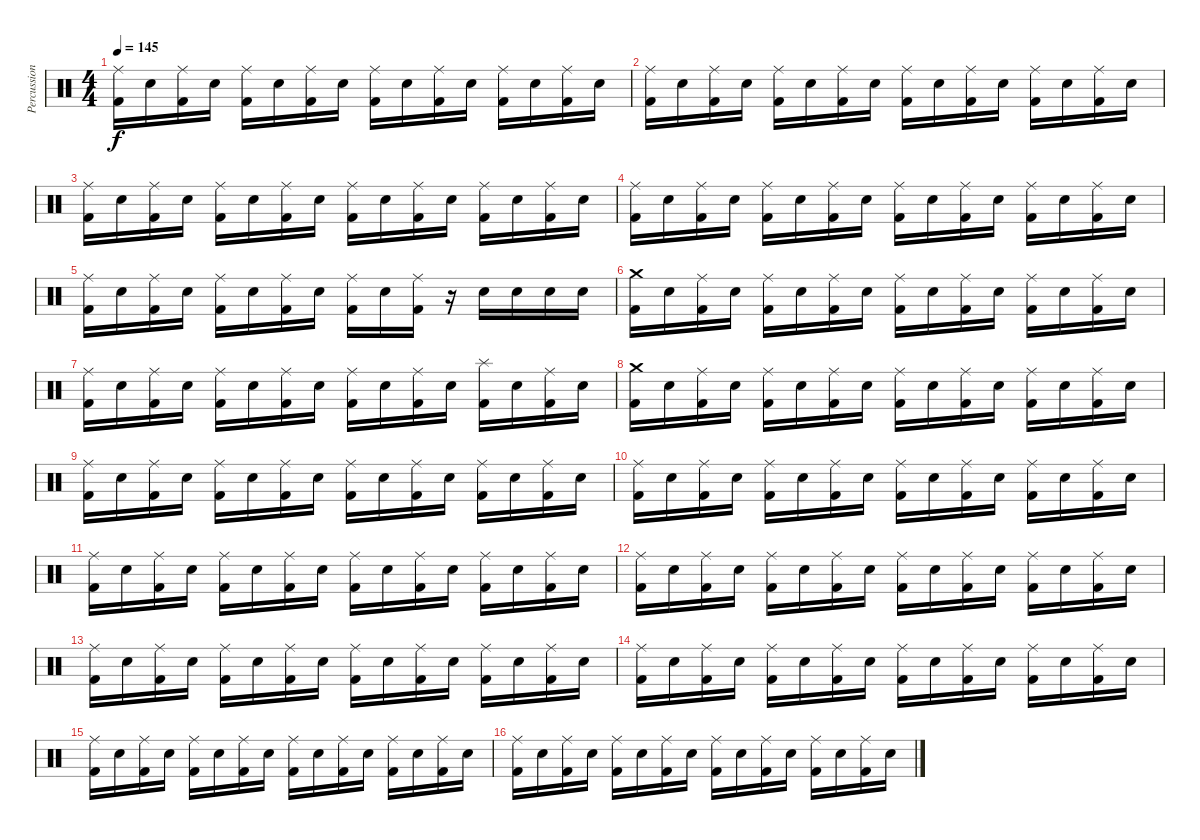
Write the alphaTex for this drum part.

\track ("Percussions" "Percussion") {instrument percussion}
\staff {score}
\articulation defaults
\ts (4 4)
\tempo 145
\clef neutral
\ks c
("Ride (middle)" "Kick (hit) 2").16{dy f} "Snare (hit) 2".16 ("Ride (middle)" "Kick (hit) 2").16 "Snare (hit) 2".16 ("Ride (middle)" "Kick (hit) 2").16 "Snare (hit) 2".16 ("Ride (middle)" "Kick (hit) 2").16 "Snare (hit) 2".16 ("Ride (middle)" "Kick (hit) 2").16 "Snare (hit) 2".16 ("Ride (middle)" "Kick (hit) 2").16 "Snare (hit) 2".16 ("Ride (middle)" "Kick (hit) 2").16 "Snare (hit) 2".16 ("Ride (middle)" "Kick (hit) 2").16 "Snare (hit) 2".16 |
("Ride (middle)" "Kick (hit) 2").16 "Snare (hit) 2".16 ("Ride (middle)" "Kick (hit) 2").16 "Snare (hit) 2".16 ("Ride (middle)" "Kick (hit) 2").16 "Snare (hit) 2".16 ("Ride (middle)" "Kick (hit) 2").16 "Snare (hit) 2".16 ("Ride (middle)" "Kick (hit) 2").16 "Snare (hit) 2".16 ("Ride (middle)" "Kick (hit) 2").16 "Snare (hit) 2".16 ("Ride (middle)" "Kick (hit) 2").16 "Snare (hit) 2".16 ("Ride (middle)" "Kick (hit) 2").16 "Snare (hit) 2".16 |
("Ride (middle)" "Kick (hit) 2").16 "Snare (hit) 2".16 ("Ride (middle)" "Kick (hit) 2").16 "Snare (hit) 2".16 ("Ride (middle)" "Kick (hit) 2").16 "Snare (hit) 2".16 ("Ride (middle)" "Kick (hit) 2").16 "Snare (hit) 2".16 ("Ride (middle)" "Kick (hit) 2").16 "Snare (hit) 2".16 ("Ride (middle)" "Kick (hit) 2").16 "Snare (hit) 2".16 ("Ride (middle)" "Kick (hit) 2").16 "Snare (hit) 2".16 ("Ride (middle)" "Kick (hit) 2").16 "Snare (hit) 2".16 |
("Ride (middle)" "Kick (hit) 2").16 "Snare (hit) 2".16 ("Ride (middle)" "Kick (hit) 2").16 "Snare (hit) 2".16 ("Ride (middle)" "Kick (hit) 2").16 "Snare (hit) 2".16 ("Ride (middle)" "Kick (hit) 2").16 "Snare (hit) 2".16 ("Ride (middle)" "Kick (hit) 2").16 "Snare (hit) 2".16 ("Ride (middle)" "Kick (hit) 2").16 "Snare (hit) 2".16 ("Ride (middle)" "Kick (hit) 2").16 "Snare (hit) 2".16 ("Ride (middle)" "Kick (hit) 2").16 "Snare (hit) 2".16 |
("Ride (middle)" "Kick (hit) 2").16 "Snare (hit) 2".16 ("Ride (middle)" "Kick (hit) 2").16 "Snare (hit) 2".16 ("Ride (middle)" "Kick (hit) 2").16 "Snare (hit) 2".16 ("Ride (middle)" "Kick (hit) 2").16 "Snare (hit) 2".16 ("Ride (middle)" "Kick (hit) 2").16 "Snare (hit) 2".16 ("Ride (middle)" "Kick (hit) 2").16 r.16 "Snare (hit) 2".16 "Snare (hit) 2".16 "Snare (hit) 2".16 "Snare (hit) 2".16 |
("Crash medium (hit)" "Kick (hit) 2").16 "Snare (hit) 2".16 ("Ride (middle)" "Kick (hit) 2").16 "Snare (hit) 2".16 ("Ride (middle)" "Kick (hit) 2").16 "Snare (hit) 2".16 ("Ride (middle)" "Kick (hit) 2").16 "Snare (hit) 2".16 ("Ride (middle)" "Kick (hit) 2").16 "Snare (hit) 2".16 ("Ride (middle)" "Kick (hit) 2").16 "Snare (hit) 2".16 ("Ride (middle)" "Kick (hit) 2").16 "Snare (hit) 2".16 ("Ride (middle)" "Kick (hit) 2").16 "Snare (hit) 2".16 |
("Ride (middle)" "Kick (hit) 2").16 "Snare (hit) 2".16 ("Ride (middle)" "Kick (hit) 2").16 "Snare (hit) 2".16 ("Ride (middle)" "Kick (hit) 2").16 "Snare (hit) 2".16 ("Ride (middle)" "Kick (hit) 2").16 "Snare (hit) 2".16 ("Ride (middle)" "Kick (hit) 2").16 "Snare (hit) 2".16 ("Ride (middle)" "Kick (hit) 2").16 "Snare (hit) 2".16 ("Splash (hit)" "Kick (hit) 2").16 "Snare (hit) 2".16 ("Ride (middle)" "Kick (hit) 2").16 "Snare (hit) 2".16 |
("Crash medium (hit)" "Kick (hit) 2").16 "Snare (hit) 2".16 ("Ride (middle)" "Kick (hit) 2").16 "Snare (hit) 2".16 ("Ride (middle)" "Kick (hit) 2").16 "Snare (hit) 2".16 ("Ride (middle)" "Kick (hit) 2").16 "Snare (hit) 2".16 ("Ride (middle)" "Kick (hit) 2").16 "Snare (hit) 2".16 ("Ride (middle)" "Kick (hit) 2").16 "Snare (hit) 2".16 ("Ride (middle)" "Kick (hit) 2").16 "Snare (hit) 2".16 ("Ride (middle)" "Kick (hit) 2").16 "Snare (hit) 2".16 |
("Ride (middle)" "Kick (hit) 2").16 "Snare (hit) 2".16 ("Ride (middle)" "Kick (hit) 2").16 "Snare (hit) 2".16 ("Ride (middle)" "Kick (hit) 2").16 "Snare (hit) 2".16 ("Ride (middle)" "Kick (hit) 2").16 "Snare (hit) 2".16 ("Ride (middle)" "Kick (hit) 2").16 "Snare (hit) 2".16 ("Ride (middle)" "Kick (hit) 2").16 "Snare (hit) 2".16 ("Ride (middle)" "Kick (hit) 2").16 "Snare (hit) 2".16 ("Ride (middle)" "Kick (hit) 2").16 "Snare (hit) 2".16 |
("Ride (middle)" "Kick (hit) 2").16 "Snare (hit) 2".16 ("Ride (middle)" "Kick (hit) 2").16 "Snare (hit) 2".16 ("Ride (middle)" "Kick (hit) 2").16 "Snare (hit) 2".16 ("Ride (middle)" "Kick (hit) 2").16 "Snare (hit) 2".16 ("Ride (middle)" "Kick (hit) 2").16 "Snare (hit) 2".16 ("Ride (middle)" "Kick (hit) 2").16 "Snare (hit) 2".16 ("Ride (middle)" "Kick (hit) 2").16 "Snare (hit) 2".16 ("Ride (middle)" "Kick (hit) 2").16 "Snare (hit) 2".16 |
("Ride (middle)" "Kick (hit) 2").16 "Snare (hit) 2".16 ("Ride (middle)" "Kick (hit) 2").16 "Snare (hit) 2".16 ("Ride (middle)" "Kick (hit) 2").16 "Snare (hit) 2".16 ("Ride (middle)" "Kick (hit) 2").16 "Snare (hit) 2".16 ("Ride (middle)" "Kick (hit) 2").16 "Snare (hit) 2".16 ("Ride (middle)" "Kick (hit) 2").16 "Snare (hit) 2".16 ("Ride (middle)" "Kick (hit) 2").16 "Snare (hit) 2".16 ("Ride (middle)" "Kick (hit) 2").16 "Snare (hit) 2".16 |
("Ride (middle)" "Kick (hit) 2").16 "Snare (hit) 2".16 ("Ride (middle)" "Kick (hit) 2").16 "Snare (hit) 2".16 ("Ride (middle)" "Kick (hit) 2").16 "Snare (hit) 2".16 ("Ride (middle)" "Kick (hit) 2").16 "Snare (hit) 2".16 ("Ride (middle)" "Kick (hit) 2").16 "Snare (hit) 2".16 ("Ride (middle)" "Kick (hit) 2").16 "Snare (hit) 2".16 ("Ride (middle)" "Kick (hit) 2").16 "Snare (hit) 2".16 ("Ride (middle)" "Kick (hit) 2").16 "Snare (hit) 2".16 |
("Ride (middle)" "Kick (hit) 2").16 "Snare (hit) 2".16 ("Ride (middle)" "Kick (hit) 2").16 "Snare (hit) 2".16 ("Ride (middle)" "Kick (hit) 2").16 "Snare (hit) 2".16 ("Ride (middle)" "Kick (hit) 2").16 "Snare (hit) 2".16 ("Ride (middle)" "Kick (hit) 2").16 "Snare (hit) 2".16 ("Ride (middle)" "Kick (hit) 2").16 "Snare (hit) 2".16 ("Ride (middle)" "Kick (hit) 2").16 "Snare (hit) 2".16 ("Ride (middle)" "Kick (hit) 2").16 "Snare (hit) 2".16 |
("Ride (middle)" "Kick (hit) 2").16 "Snare (hit) 2".16 ("Ride (middle)" "Kick (hit) 2").16 "Snare (hit) 2".16 ("Ride (middle)" "Kick (hit) 2").16 "Snare (hit) 2".16 ("Ride (middle)" "Kick (hit) 2").16 "Snare (hit) 2".16 ("Ride (middle)" "Kick (hit) 2").16 "Snare (hit) 2".16 ("Ride (middle)" "Kick (hit) 2").16 "Snare (hit) 2".16 ("Ride (middle)" "Kick (hit) 2").16 "Snare (hit) 2".16 ("Ride (middle)" "Kick (hit) 2").16 "Snare (hit) 2".16 |
("Ride (middle)" "Kick (hit) 2").16 "Snare (hit) 2".16 ("Ride (middle)" "Kick (hit) 2").16 "Snare (hit) 2".16 ("Ride (middle)" "Kick (hit) 2").16 "Snare (hit) 2".16 ("Ride (middle)" "Kick (hit) 2").16 "Snare (hit) 2".16 ("Ride (middle)" "Kick (hit) 2").16 "Snare (hit) 2".16 ("Ride (middle)" "Kick (hit) 2").16 "Snare (hit) 2".16 ("Ride (middle)" "Kick (hit) 2").16 "Snare (hit) 2".16 ("Ride (middle)" "Kick (hit) 2").16 "Snare (hit) 2".16 |
("Ride (middle)" "Kick (hit) 2").16 "Snare (hit) 2".16 ("Ride (middle)" "Kick (hit) 2").16 "Snare (hit) 2".16 ("Ride (middle)" "Kick (hit) 2").16 "Snare (hit) 2".16 ("Ride (middle)" "Kick (hit) 2").16 "Snare (hit) 2".16 ("Ride (middle)" "Kick (hit) 2").16 "Snare (hit) 2".16 ("Ride (middle)" "Kick (hit) 2").16 "Snare (hit) 2".16 ("Ride (middle)" "Kick (hit) 2").16 "Snare (hit) 2".16 ("Ride (middle)" "Kick (hit) 2").16 "Snare (hit) 2".16
